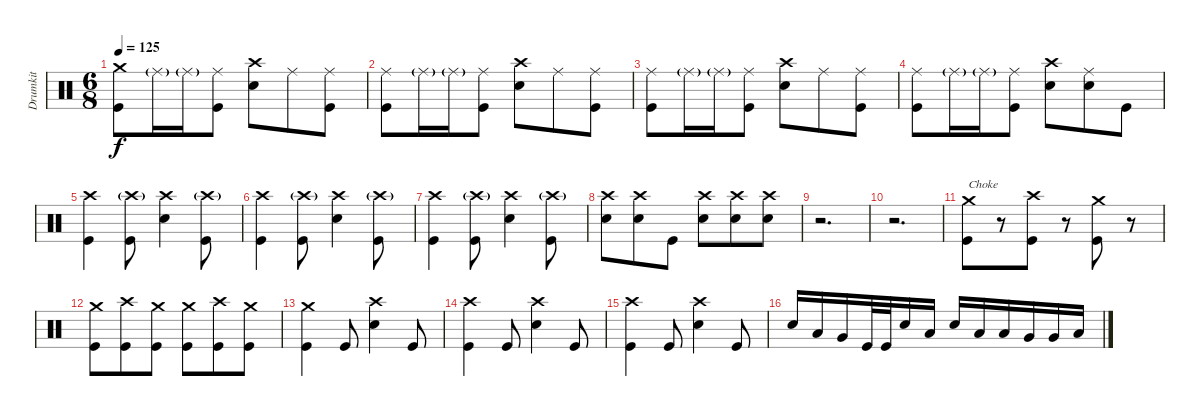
\track ("Drumkit" "Drumkit") {instrument percussion}
\staff {score}
\articulation defaults
\ts (6 8)
\tempo 125
\clef neutral
\ks c
("Kick (hit)" "Crash medium (hit)").8{dy f} "Ride (middle)"{g}.16 "Ride (middle)"{g}.16 ("Kick (hit)" "Ride (middle)").8 ("Snare (hit) 2" "Crash high (hit)").8 "Ride (middle)".8 ("Kick (hit)" "Ride (middle)").8 |
("Kick (hit)" "Ride (middle)").8 "Ride (middle)"{g}.16 "Ride (middle)"{g}.16 ("Kick (hit)" "Ride (middle)").8 ("Snare (hit) 2" "Crash high (hit)").8 "Ride (middle)".8 ("Kick (hit)" "Ride (middle)").8 |
("Kick (hit)" "Ride (middle)").8 "Ride (middle)"{g}.16 "Ride (middle)"{g}.16 ("Kick (hit)" "Ride (middle)").8 ("Snare (hit) 2" "Crash high (hit)").8 "Ride (middle)".8 ("Kick (hit)" "Ride (middle)").8 |
("Kick (hit)" "Ride (middle)").8 "Ride (middle)"{g}.16 "Ride (middle)"{g}.16 ("Kick (hit)" "Ride (middle)").8 ("Snare (hit) 2" "Crash high (hit)").8 ("Ride (middle)" "Snare (hit) 2").8 "Kick (hit)".8 |
("Kick (hit)" "Crash high (hit)").4 ("Kick (hit)" "Crash high (hit)"{g}).8 ("Snare (hit) 2" "Crash high (hit)").4 ("Kick (hit)" "Crash high (hit)"{g}).8 |
("Kick (hit)" "Crash high (hit)").4 ("Kick (hit)" "Crash high (hit)"{g}).8 ("Snare (hit) 2" "Crash high (hit)").4 ("Kick (hit)" "Crash high (hit)"{g}).8 |
("Kick (hit)" "Crash high (hit)").4 ("Kick (hit)" "Crash high (hit)"{g}).8 ("Snare (hit) 2" "Crash high (hit)").4 ("Kick (hit)" "Crash high (hit)"{g}).8 |
("Snare (hit) 2" "Crash high (hit)").8 ("Snare (hit) 2" "Crash high (hit)").8 "Kick (hit)".8 ("Snare (hit) 2" "Crash high (hit)").8 ("Snare (hit) 2" "Crash high (hit)").8 ("Snare (hit) 2" "Crash high (hit)").8 |
r.2{d} |
r.2{d} |
("Kick (hit)" "Crash medium (hit)").8{txt "Choke"} r.8 ("Kick (hit)" "Crash high (hit)").8 r.8 ("Kick (hit)" "Crash medium (hit)").8 r.8 |
("Kick (hit)" "Crash medium (hit)").8 ("Kick (hit)" "Crash high (hit)").8 ("Kick (hit)" "Crash medium (hit)").8 ("Kick (hit)" "Crash medium (hit)").8 ("Kick (hit)" "Crash high (hit)").8 ("Kick (hit)" "Crash medium (hit)").8 |
("Kick (hit)" "Crash medium (hit)").4 "Kick (hit)".8 ("Snare (hit) 2" "Crash high (hit)").4 "Kick (hit)".8 |
("Kick (hit)" "Crash high (hit)").4 "Kick (hit)".8 ("Snare (hit) 2" "Crash high (hit)").4 "Kick (hit)".8 |
("Kick (hit)" "Crash high (hit)").4 "Kick (hit)".8 ("Snare (hit) 2" "Crash high (hit)").4 "Kick (hit)".8 |
"Snare (hit) 2".16 "Low Tom (hit)".16 "Very Low Tom (hit)".16 "Kick (hit)".32 "Kick (hit)".32 "Snare (hit) 2".16 "Low Tom (hit)".16 "Snare (hit) 2".16 "Low Tom (hit)".16 "Low Tom (hit)".16 "Very Low Tom (hit)".16 "Very Low Tom (hit)".16 "Low Floor Tom (hit)".16
